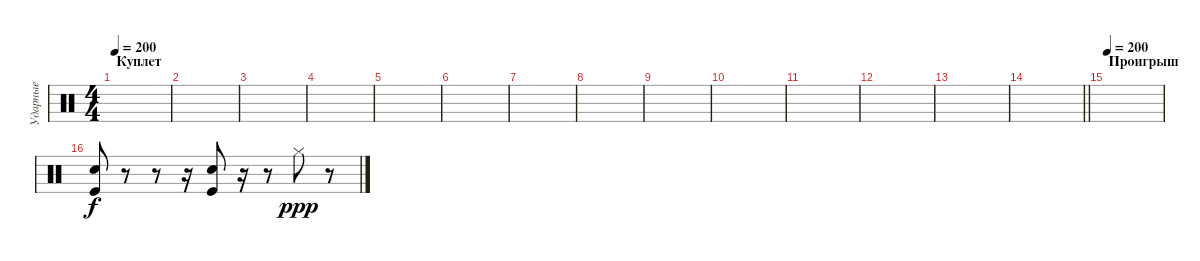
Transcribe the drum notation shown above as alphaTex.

\track ("Ударные" "Ударные") {instrument percussion}
\staff {score}
\articulation defaults
\ts (4 4)
\section ("" "Куплет")
\tempo 200
\clef neutral
\ks c
|
|
|
|
|
|
|
|
|
|
|
|
|
\barLineRight lightlight
|
\section ("" "Проигрыш")
\tempo 200
|
("Electric Snare (hit)" "Kick (hit)").8 r.8 r.8 r.16 ("Electric Snare (hit)" "Kick (hit)").8 r.16 r.8 "Hi-Hat (closed)".8{dy ppp} r.8
